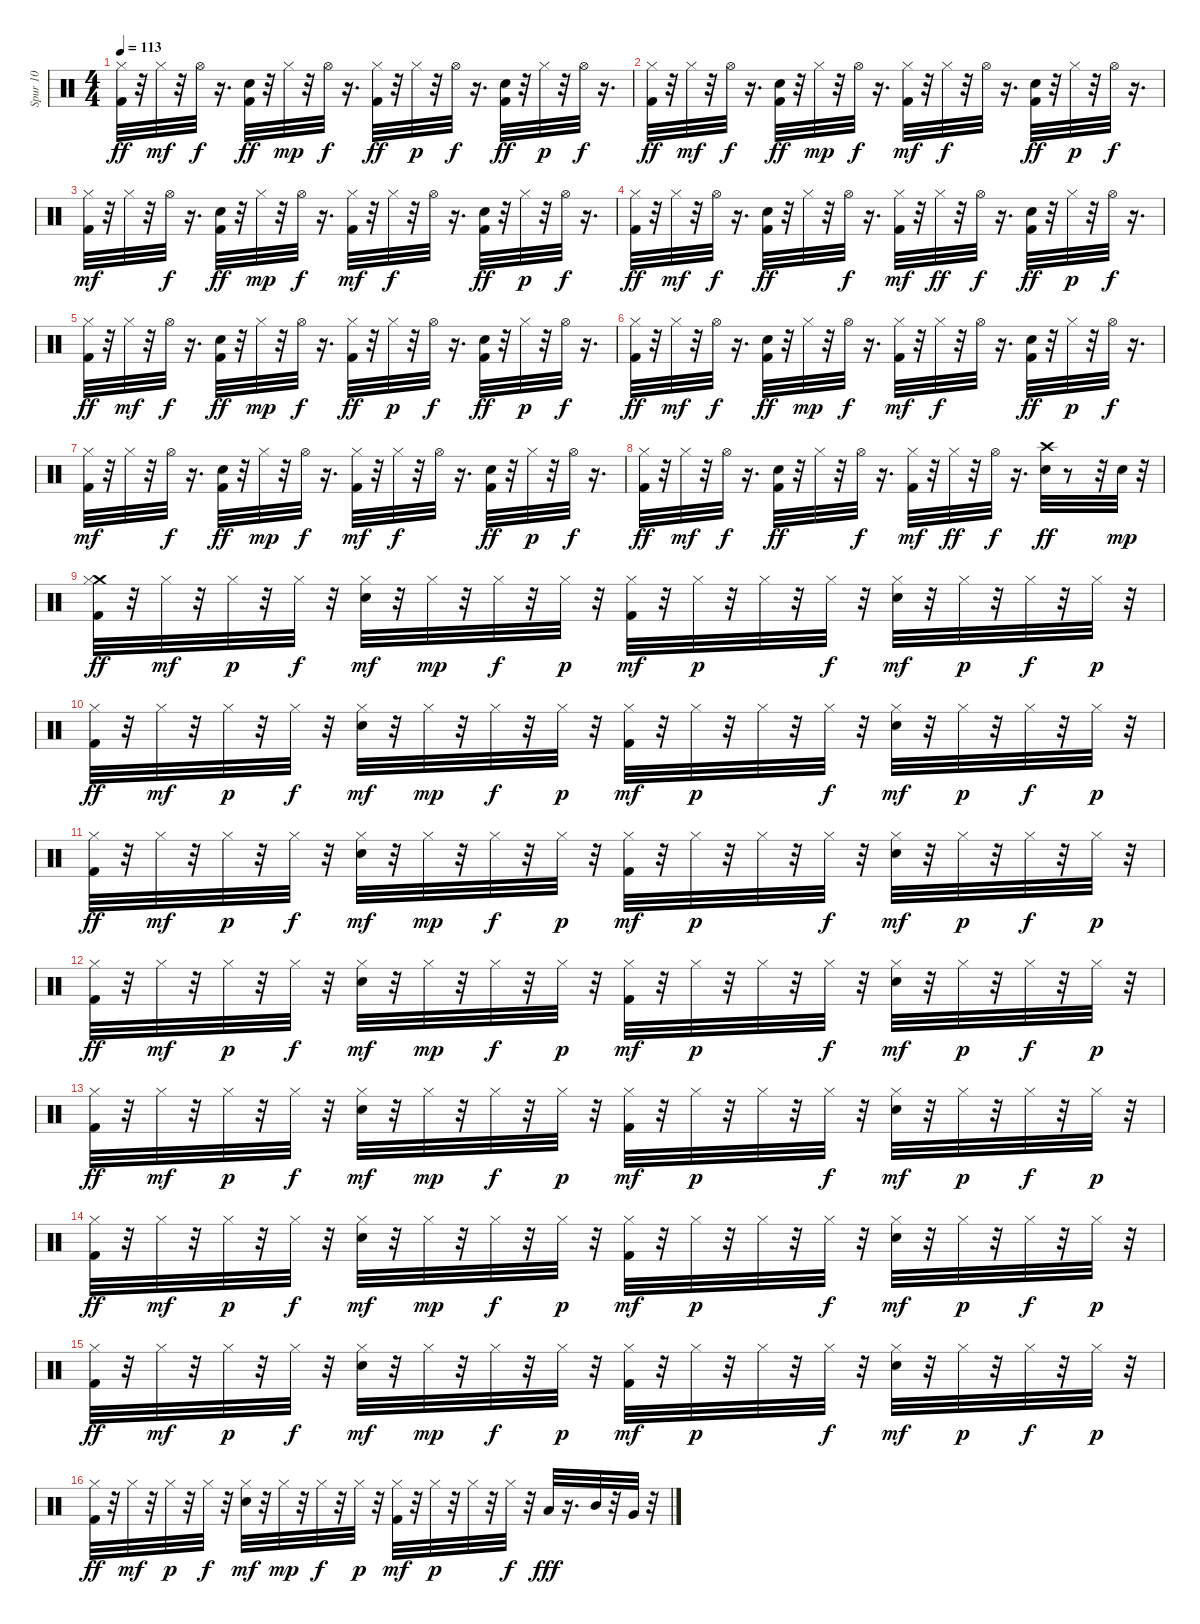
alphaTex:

\track ("Spur 10" "Spur 10") {instrument percussion}
\staff {score}
\articulation defaults
\ts (4 4)
\tempo 113
\clef neutral
\ks c
("Kick (hit) 2" "Hi-Hat (closed)").32{dy ff} r.32 "Hi-Hat (closed)".32{dy mf} r.32 "Hi-Hat (open)".32{dy f} r.16{d} ("Kick (hit) 2" "Snare (hit) 2").32{dy ff} r.32 "Hi-Hat (closed)".32{dy mp} r.32 "Hi-Hat (open)".32{dy f} r.16{d} ("Kick (hit) 2" "Hi-Hat (closed)").32{dy ff} r.32 "Hi-Hat (closed)".32{dy p} r.32 "Hi-Hat (open)".32{dy f} r.16{d} ("Kick (hit) 2" "Snare (hit) 2").32{dy ff} r.32 "Hi-Hat (closed)".32{dy p} r.32 "Hi-Hat (open)".32{dy f} r.16{d} |
("Kick (hit) 2" "Hi-Hat (closed)").32{dy ff} r.32 "Hi-Hat (closed)".32{dy mf} r.32 "Hi-Hat (open)".32{dy f} r.16{d} ("Kick (hit) 2" "Snare (hit) 2").32{dy ff} r.32 "Hi-Hat (closed)".32{dy mp} r.32 "Hi-Hat (open)".32{dy f} r.16{d} ("Kick (hit) 2" "Hi-Hat (closed)").32{dy mf} r.32 "Hi-Hat (closed)".32{dy f} r.32 "Hi-Hat (open)".32 r.16{d} ("Kick (hit) 2" "Snare (hit) 2").32{dy ff} r.32 "Hi-Hat (closed)".32{dy p} r.32 "Hi-Hat (open)".32{dy f} r.16{d} |
("Kick (hit) 2" "Hi-Hat (closed)").32{dy mf} r.32 "Hi-Hat (closed)".32 r.32 "Hi-Hat (open)".32{dy f} r.16{d} ("Kick (hit) 2" "Snare (hit) 2").32{dy ff} r.32 "Hi-Hat (closed)".32{dy mp} r.32 "Hi-Hat (open)".32{dy f} r.16{d} ("Kick (hit) 2" "Hi-Hat (closed)").32{dy mf} r.32 "Hi-Hat (closed)".32{dy f} r.32 "Hi-Hat (open)".32 r.16{d} ("Kick (hit) 2" "Snare (hit) 2").32{dy ff} r.32 "Hi-Hat (closed)".32{dy p} r.32 "Hi-Hat (open)".32{dy f} r.16{d} |
("Kick (hit) 2" "Hi-Hat (closed)").32{dy ff} r.32 "Hi-Hat (closed)".32{dy mf} r.32 "Hi-Hat (open)".32{dy f} r.16{d} ("Kick (hit) 2" "Snare (hit) 2").32{dy ff} r.32 "Hi-Hat (closed)".32 r.32 "Hi-Hat (open)".32{dy f} r.16{d} ("Kick (hit) 2" "Hi-Hat (closed)").32{dy mf} r.32 "Hi-Hat (closed)".32{dy ff} r.32 "Hi-Hat (open)".32{dy f} r.16{d} ("Kick (hit) 2" "Snare (hit) 2").32{dy ff} r.32 "Hi-Hat (closed)".32{dy p} r.32 "Hi-Hat (open)".32{dy f} r.16{d} |
("Kick (hit) 2" "Hi-Hat (closed)").32{dy ff} r.32 "Hi-Hat (closed)".32{dy mf} r.32 "Hi-Hat (open)".32{dy f} r.16{d} ("Kick (hit) 2" "Snare (hit) 2").32{dy ff} r.32 "Hi-Hat (closed)".32{dy mp} r.32 "Hi-Hat (open)".32{dy f} r.16{d} ("Kick (hit) 2" "Hi-Hat (closed)").32{dy ff} r.32 "Hi-Hat (closed)".32{dy p} r.32 "Hi-Hat (open)".32{dy f} r.16{d} ("Kick (hit) 2" "Snare (hit) 2").32{dy ff} r.32 "Hi-Hat (closed)".32{dy p} r.32 "Hi-Hat (open)".32{dy f} r.16{d} |
("Kick (hit) 2" "Hi-Hat (closed)").32{dy ff} r.32 "Hi-Hat (closed)".32{dy mf} r.32 "Hi-Hat (open)".32{dy f} r.16{d} ("Kick (hit) 2" "Snare (hit) 2").32{dy ff} r.32 "Hi-Hat (closed)".32{dy mp} r.32 "Hi-Hat (open)".32{dy f} r.16{d} ("Kick (hit) 2" "Hi-Hat (closed)").32{dy mf} r.32 "Hi-Hat (closed)".32{dy f} r.32 "Hi-Hat (open)".32 r.16{d} ("Kick (hit) 2" "Snare (hit) 2").32{dy ff} r.32 "Hi-Hat (closed)".32{dy p} r.32 "Hi-Hat (open)".32{dy f} r.16{d} |
("Kick (hit) 2" "Hi-Hat (closed)").32{dy mf} r.32 "Hi-Hat (closed)".32 r.32 "Hi-Hat (open)".32{dy f} r.16{d} ("Kick (hit) 2" "Snare (hit) 2").32{dy ff} r.32 "Hi-Hat (closed)".32{dy mp} r.32 "Hi-Hat (open)".32{dy f} r.16{d} ("Kick (hit) 2" "Hi-Hat (closed)").32{dy mf} r.32 "Hi-Hat (closed)".32{dy f} r.32 "Hi-Hat (open)".32 r.16{d} ("Kick (hit) 2" "Snare (hit) 2").32{dy ff} r.32 "Hi-Hat (closed)".32{dy p} r.32 "Hi-Hat (open)".32{dy f} r.16{d} |
("Kick (hit) 2" "Hi-Hat (closed)").32{dy ff} r.32 "Hi-Hat (closed)".32{dy mf} r.32 "Hi-Hat (open)".32{dy f} r.16{d} ("Kick (hit) 2" "Snare (hit) 2").32{dy ff} r.32 "Hi-Hat (closed)".32 r.32 "Hi-Hat (open)".32{dy f} r.16{d} ("Kick (hit) 2" "Hi-Hat (closed)").32{dy mf} r.32 "Hi-Hat (closed)".32{dy ff} r.32 "Hi-Hat (open)".32{dy f} r.16{d} ("Snare (hit) 2" "Crash high (hit)").32{dy ff} r.8 r.32 "Snare (hit) 2".32{dy mp} r.32 |
("Crash medium (hit)" "Kick (hit) 2" "Hi-Hat (closed)").32{dy ff} r.32 "Hi-Hat (closed)".32{dy mf} r.32 "Hi-Hat (closed)".32{dy p} r.32 "Hi-Hat (closed)".32{dy f} r.32 ("Snare (hit) 2" "Hi-Hat (closed)").32{dy mf} r.32 "Hi-Hat (closed)".32{dy mp} r.32 "Hi-Hat (closed)".32{dy f} r.32 "Hi-Hat (closed)".32{dy p} r.32 ("Kick (hit) 2" "Hi-Hat (closed)").32{dy mf} r.32 "Hi-Hat (closed)".32{dy p} r.32 "Hi-Hat (closed)".32 r.32 "Hi-Hat (closed)".32{dy f} r.32 ("Snare (hit) 2" "Hi-Hat (closed)").32{dy mf} r.32 "Hi-Hat (closed)".32{dy p} r.32 "Hi-Hat (closed)".32{dy f} r.32 "Hi-Hat (closed)".32{dy p} r.32 |
("Kick (hit) 2" "Hi-Hat (closed)").32{dy ff} r.32 "Hi-Hat (closed)".32{dy mf} r.32 "Hi-Hat (closed)".32{dy p} r.32 "Hi-Hat (closed)".32{dy f} r.32 ("Snare (hit) 2" "Hi-Hat (closed)").32{dy mf} r.32 "Hi-Hat (closed)".32{dy mp} r.32 "Hi-Hat (closed)".32{dy f} r.32 "Hi-Hat (closed)".32{dy p} r.32 ("Kick (hit) 2" "Hi-Hat (closed)").32{dy mf} r.32 "Hi-Hat (closed)".32{dy p} r.32 "Hi-Hat (closed)".32 r.32 "Hi-Hat (closed)".32{dy f} r.32 ("Snare (hit) 2" "Hi-Hat (closed)").32{dy mf} r.32 "Hi-Hat (closed)".32{dy p} r.32 "Hi-Hat (closed)".32{dy f} r.32 "Hi-Hat (closed)".32{dy p} r.32 |
("Kick (hit) 2" "Hi-Hat (closed)").32{dy ff} r.32 "Hi-Hat (closed)".32{dy mf} r.32 "Hi-Hat (closed)".32{dy p} r.32 "Hi-Hat (closed)".32{dy f} r.32 ("Snare (hit) 2" "Hi-Hat (closed)").32{dy mf} r.32 "Hi-Hat (closed)".32{dy mp} r.32 "Hi-Hat (closed)".32{dy f} r.32 "Hi-Hat (closed)".32{dy p} r.32 ("Kick (hit) 2" "Hi-Hat (closed)").32{dy mf} r.32 "Hi-Hat (closed)".32{dy p} r.32 "Hi-Hat (closed)".32 r.32 "Hi-Hat (closed)".32{dy f} r.32 ("Snare (hit) 2" "Hi-Hat (closed)").32{dy mf} r.32 "Hi-Hat (closed)".32{dy p} r.32 "Hi-Hat (closed)".32{dy f} r.32 "Hi-Hat (closed)".32{dy p} r.32 |
("Kick (hit) 2" "Hi-Hat (closed)").32{dy ff} r.32 "Hi-Hat (closed)".32{dy mf} r.32 "Hi-Hat (closed)".32{dy p} r.32 "Hi-Hat (closed)".32{dy f} r.32 ("Snare (hit) 2" "Hi-Hat (closed)").32{dy mf} r.32 "Hi-Hat (closed)".32{dy mp} r.32 "Hi-Hat (closed)".32{dy f} r.32 "Hi-Hat (closed)".32{dy p} r.32 ("Kick (hit) 2" "Hi-Hat (closed)").32{dy mf} r.32 "Hi-Hat (closed)".32{dy p} r.32 "Hi-Hat (closed)".32 r.32 "Hi-Hat (closed)".32{dy f} r.32 ("Snare (hit) 2" "Hi-Hat (closed)").32{dy mf} r.32 "Hi-Hat (closed)".32{dy p} r.32 "Hi-Hat (closed)".32{dy f} r.32 "Hi-Hat (closed)".32{dy p} r.32 |
("Kick (hit) 2" "Hi-Hat (closed)").32{dy ff} r.32 "Hi-Hat (closed)".32{dy mf} r.32 "Hi-Hat (closed)".32{dy p} r.32 "Hi-Hat (closed)".32{dy f} r.32 ("Snare (hit) 2" "Hi-Hat (closed)").32{dy mf} r.32 "Hi-Hat (closed)".32{dy mp} r.32 "Hi-Hat (closed)".32{dy f} r.32 "Hi-Hat (closed)".32{dy p} r.32 ("Kick (hit) 2" "Hi-Hat (closed)").32{dy mf} r.32 "Hi-Hat (closed)".32{dy p} r.32 "Hi-Hat (closed)".32 r.32 "Hi-Hat (closed)".32{dy f} r.32 ("Snare (hit) 2" "Hi-Hat (closed)").32{dy mf} r.32 "Hi-Hat (closed)".32{dy p} r.32 "Hi-Hat (closed)".32{dy f} r.32 "Hi-Hat (closed)".32{dy p} r.32 |
("Kick (hit) 2" "Hi-Hat (closed)").32{dy ff} r.32 "Hi-Hat (closed)".32{dy mf} r.32 "Hi-Hat (closed)".32{dy p} r.32 "Hi-Hat (closed)".32{dy f} r.32 ("Snare (hit) 2" "Hi-Hat (closed)").32{dy mf} r.32 "Hi-Hat (closed)".32{dy mp} r.32 "Hi-Hat (closed)".32{dy f} r.32 "Hi-Hat (closed)".32{dy p} r.32 ("Kick (hit) 2" "Hi-Hat (closed)").32{dy mf} r.32 "Hi-Hat (closed)".32{dy p} r.32 "Hi-Hat (closed)".32 r.32 "Hi-Hat (closed)".32{dy f} r.32 ("Snare (hit) 2" "Hi-Hat (closed)").32{dy mf} r.32 "Hi-Hat (closed)".32{dy p} r.32 "Hi-Hat (closed)".32{dy f} r.32 "Hi-Hat (closed)".32{dy p} r.32 |
("Kick (hit) 2" "Hi-Hat (closed)").32{dy ff} r.32 "Hi-Hat (closed)".32{dy mf} r.32 "Hi-Hat (closed)".32{dy p} r.32 "Hi-Hat (closed)".32{dy f} r.32 ("Snare (hit) 2" "Hi-Hat (closed)").32{dy mf} r.32 "Hi-Hat (closed)".32{dy mp} r.32 "Hi-Hat (closed)".32{dy f} r.32 "Hi-Hat (closed)".32{dy p} r.32 ("Kick (hit) 2" "Hi-Hat (closed)").32{dy mf} r.32 "Hi-Hat (closed)".32{dy p} r.32 "Hi-Hat (closed)".32 r.32 "Hi-Hat (closed)".32{dy f} r.32 ("Snare (hit) 2" "Hi-Hat (closed)").32{dy mf} r.32 "Hi-Hat (closed)".32{dy p} r.32 "Hi-Hat (closed)".32{dy f} r.32 "Hi-Hat (closed)".32{dy p} r.32 |
("Kick (hit) 2" "Hi-Hat (closed)").32{dy ff} r.32 "Hi-Hat (closed)".32{dy mf} r.32 "Hi-Hat (closed)".32{dy p} r.32 "Hi-Hat (closed)".32{dy f} r.32 ("Snare (hit) 2" "Hi-Hat (closed)").32{dy mf} r.32 "Hi-Hat (closed)".32{dy mp} r.32 "Hi-Hat (closed)".32{dy f} r.32 "Hi-Hat (closed)".32{dy p} r.32 ("Kick (hit) 2" "Hi-Hat (closed)").32{dy mf} r.32 "Hi-Hat (closed)".32{dy p} r.32 "Hi-Hat (closed)".32 r.32 "Hi-Hat (closed)".32{dy f} r.32 "Low Tom (hit)".32{dy fff} r.16{d} "Mid Tom (hit)".32 r.32 "Very Low Tom (hit)".32 r.32
